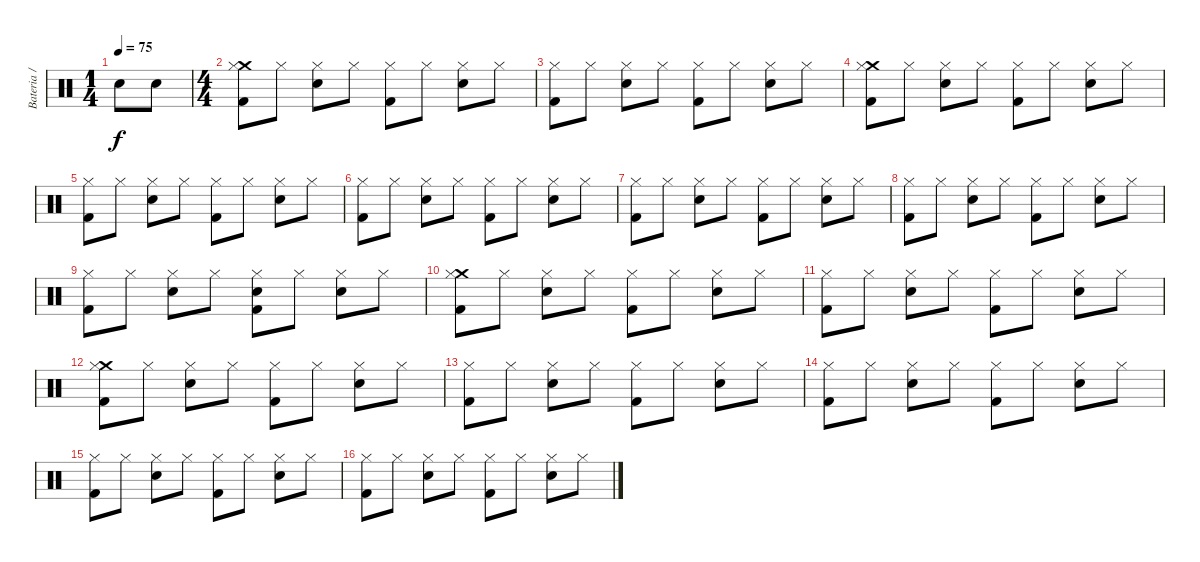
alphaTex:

\track ("Bateria / Ringo" "Bateria / ") {instrument percussion}
\staff {score}
\articulation defaults
\ts (1 4)
\tempo 75
\clef neutral
\ks c "Snare (hit) 2".8{dy f} "Snare (hit) 2".8
|
\ts (4 4)
("Crash medium (hit)" "Hi-Hat (closed)" "Kick (hit) 2").8 "Hi-Hat (closed)".8 ("Snare (hit) 2" "Hi-Hat (closed)").8 "Hi-Hat (closed)".8 ("Hi-Hat (closed)" "Kick (hit) 2").8 "Hi-Hat (closed)".8 ("Snare (hit) 2" "Hi-Hat (closed)").8 "Hi-Hat (closed)".8 |
("Hi-Hat (closed)" "Kick (hit) 2").8 "Hi-Hat (closed)".8 ("Snare (hit) 2" "Hi-Hat (closed)").8 "Hi-Hat (closed)".8 ("Hi-Hat (closed)" "Kick (hit) 2").8 "Hi-Hat (closed)".8 ("Snare (hit) 2" "Hi-Hat (closed)").8 "Hi-Hat (closed)".8 |
("Crash medium (hit)" "Hi-Hat (closed)" "Kick (hit) 2").8 "Hi-Hat (closed)".8 ("Snare (hit) 2" "Hi-Hat (closed)").8 "Hi-Hat (closed)".8 ("Hi-Hat (closed)" "Kick (hit) 2").8 "Hi-Hat (closed)".8 ("Snare (hit) 2" "Hi-Hat (closed)").8 "Hi-Hat (closed)".8 |
("Hi-Hat (closed)" "Kick (hit) 2").8 "Hi-Hat (closed)".8 ("Snare (hit) 2" "Hi-Hat (closed)").8 "Hi-Hat (closed)".8 ("Hi-Hat (closed)" "Kick (hit) 2").8 "Hi-Hat (closed)".8 ("Snare (hit) 2" "Hi-Hat (closed)").8 "Hi-Hat (closed)".8 |
("Hi-Hat (closed)" "Kick (hit) 2").8 "Hi-Hat (closed)".8 ("Snare (hit) 2" "Hi-Hat (closed)").8 "Hi-Hat (closed)".8 ("Hi-Hat (closed)" "Kick (hit) 2").8 "Hi-Hat (closed)".8 ("Snare (hit) 2" "Hi-Hat (closed)").8 "Hi-Hat (closed)".8 |
("Hi-Hat (closed)" "Kick (hit) 2").8 "Hi-Hat (closed)".8 ("Snare (hit) 2" "Hi-Hat (closed)").8 "Hi-Hat (closed)".8 ("Hi-Hat (closed)" "Kick (hit) 2").8 "Hi-Hat (closed)".8 ("Snare (hit) 2" "Hi-Hat (closed)").8 "Hi-Hat (closed)".8 |
("Hi-Hat (closed)" "Kick (hit) 2").8 "Hi-Hat (closed)".8 ("Snare (hit) 2" "Hi-Hat (closed)").8 "Hi-Hat (closed)".8 ("Hi-Hat (closed)" "Kick (hit) 2").8 "Hi-Hat (closed)".8 ("Snare (hit) 2" "Hi-Hat (closed)").8 "Hi-Hat (closed)".8 |
("Hi-Hat (closed)" "Kick (hit) 2").8 "Hi-Hat (closed)".8 ("Snare (hit) 2" "Hi-Hat (closed)").8 "Hi-Hat (closed)".8 ("Snare (hit) 2" "Hi-Hat (closed)" "Kick (hit) 2").8 "Hi-Hat (closed)".8 ("Snare (hit) 2" "Hi-Hat (closed)").8 "Hi-Hat (closed)".8 |
("Crash medium (hit)" "Hi-Hat (closed)" "Kick (hit) 2").8 "Hi-Hat (closed)".8 ("Snare (hit) 2" "Hi-Hat (closed)").8 "Hi-Hat (closed)".8 ("Hi-Hat (closed)" "Kick (hit) 2").8 "Hi-Hat (closed)".8 ("Snare (hit) 2" "Hi-Hat (closed)").8 "Hi-Hat (closed)".8 |
("Hi-Hat (closed)" "Kick (hit) 2").8 "Hi-Hat (closed)".8 ("Snare (hit) 2" "Hi-Hat (closed)").8 "Hi-Hat (closed)".8 ("Hi-Hat (closed)" "Kick (hit) 2").8 "Hi-Hat (closed)".8 ("Snare (hit) 2" "Hi-Hat (closed)").8 "Hi-Hat (closed)".8 |
("Crash medium (hit)" "Hi-Hat (closed)" "Kick (hit) 2").8 "Hi-Hat (closed)".8 ("Snare (hit) 2" "Hi-Hat (closed)").8 "Hi-Hat (closed)".8 ("Hi-Hat (closed)" "Kick (hit) 2").8 "Hi-Hat (closed)".8 ("Snare (hit) 2" "Hi-Hat (closed)").8 "Hi-Hat (closed)".8 |
("Hi-Hat (closed)" "Kick (hit) 2").8 "Hi-Hat (closed)".8 ("Snare (hit) 2" "Hi-Hat (closed)").8 "Hi-Hat (closed)".8 ("Hi-Hat (closed)" "Kick (hit) 2").8 "Hi-Hat (closed)".8 ("Snare (hit) 2" "Hi-Hat (closed)").8 "Hi-Hat (closed)".8 |
("Hi-Hat (closed)" "Kick (hit) 2").8 "Hi-Hat (closed)".8 ("Snare (hit) 2" "Hi-Hat (closed)").8 "Hi-Hat (closed)".8 ("Hi-Hat (closed)" "Kick (hit) 2").8 "Hi-Hat (closed)".8 ("Snare (hit) 2" "Hi-Hat (closed)").8 "Hi-Hat (closed)".8 |
("Hi-Hat (closed)" "Kick (hit) 2").8 "Hi-Hat (closed)".8 ("Snare (hit) 2" "Hi-Hat (closed)").8 "Hi-Hat (closed)".8 ("Hi-Hat (closed)" "Kick (hit) 2").8 "Hi-Hat (closed)".8 ("Snare (hit) 2" "Hi-Hat (closed)").8 "Hi-Hat (closed)".8 |
("Hi-Hat (closed)" "Kick (hit) 2").8 "Hi-Hat (closed)".8 ("Snare (hit) 2" "Hi-Hat (closed)").8 "Hi-Hat (closed)".8 ("Hi-Hat (closed)" "Kick (hit) 2").8 "Hi-Hat (closed)".8 ("Snare (hit) 2" "Hi-Hat (closed)").8 "Hi-Hat (closed)".8
